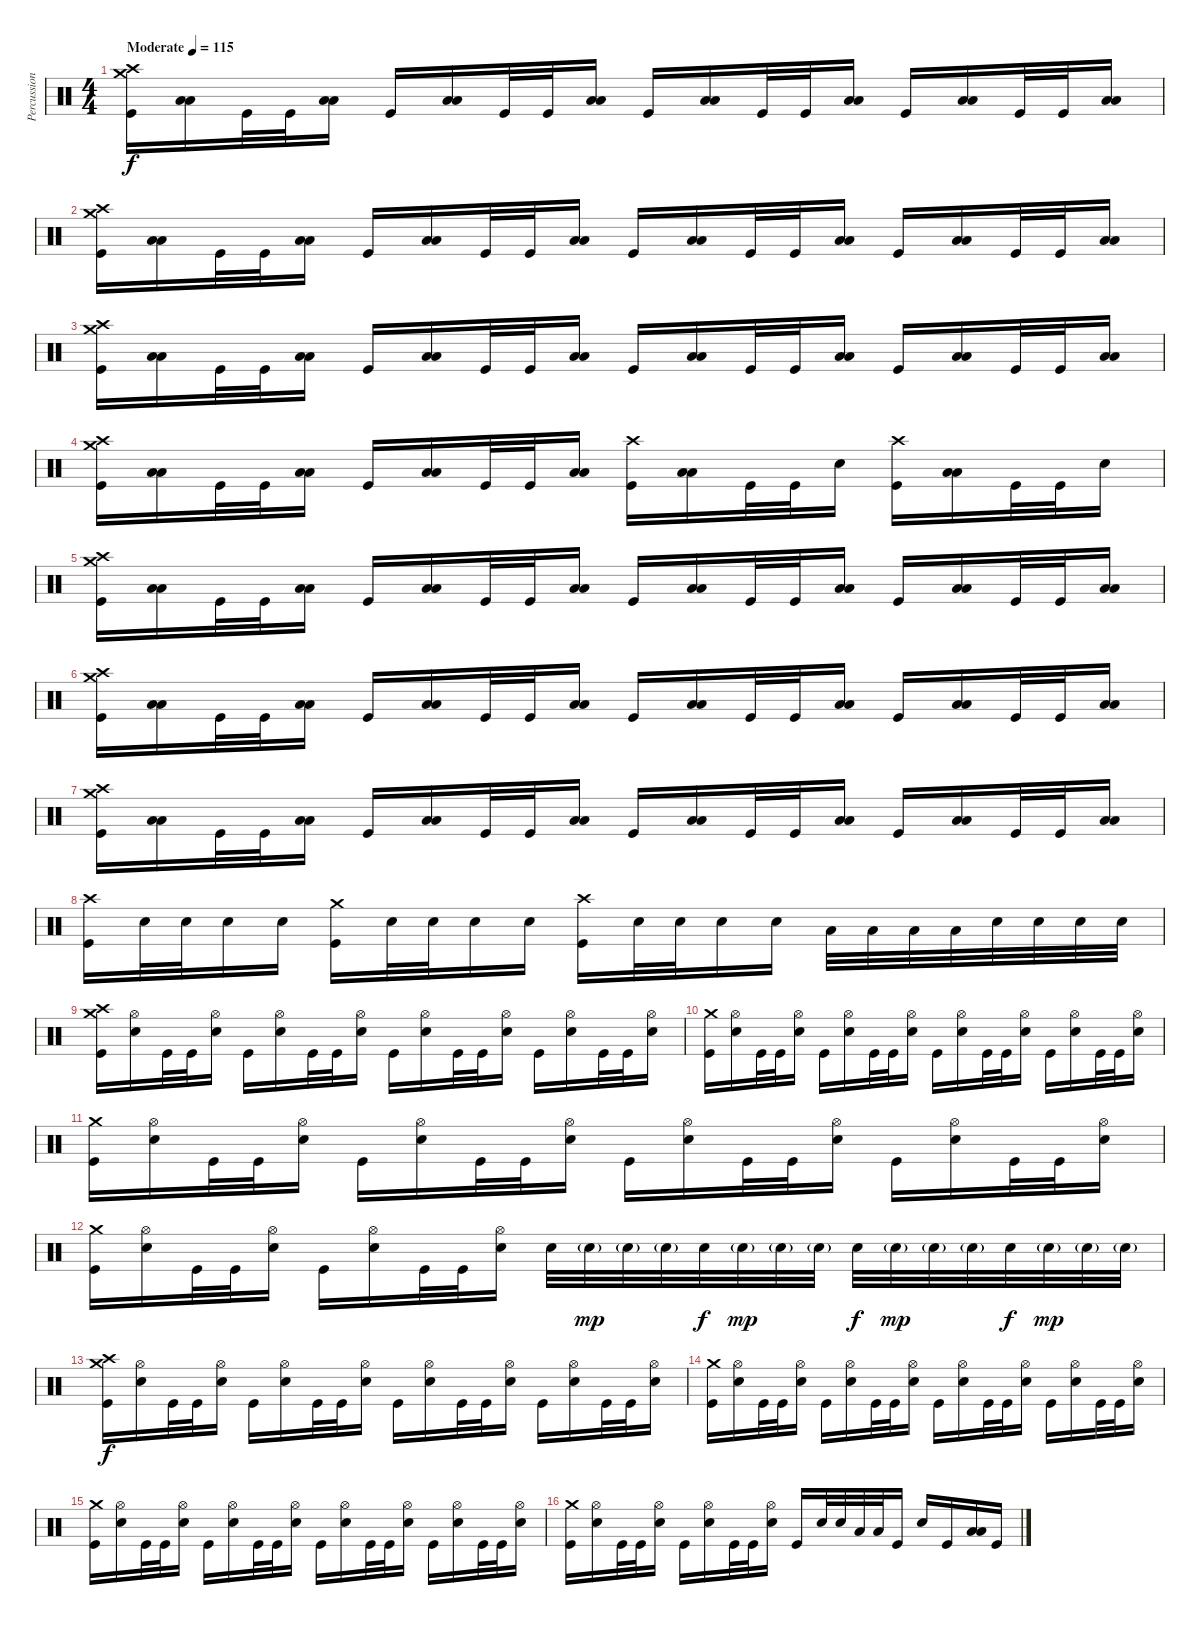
\track ("Percussion" "Percussion") {instrument percussion}
\staff {score}
\articulation defaults
\ts (4 4)
\tempo (115 "Moderate")
\clef neutral
\ks c
("Crash medium (hit)" "Crash high (hit)" "Kick (hit)").16{dy f} ("Low Tom (hit)" "Low Floor Tom (hit)").16 "Kick (hit)".32 "Kick (hit)".32 ("Low Tom (hit)" "Low Floor Tom (hit)").16 "Kick (hit)".16 ("Low Tom (hit)" "Low Floor Tom (hit)").16 "Kick (hit)".32 "Kick (hit)".32 ("Low Tom (hit)" "Low Floor Tom (hit)").16 "Kick (hit)".16 ("Low Tom (hit)" "Low Floor Tom (hit)").16 "Kick (hit)".32 "Kick (hit)".32 ("Low Tom (hit)" "Low Floor Tom (hit)").16 "Kick (hit)".16 ("Low Tom (hit)" "Low Floor Tom (hit)").16 "Kick (hit)".32 "Kick (hit)".32 ("Low Tom (hit)" "Low Floor Tom (hit)").16 |
("Crash medium (hit)" "Crash high (hit)" "Kick (hit)").16 ("Low Tom (hit)" "Low Floor Tom (hit)").16 "Kick (hit)".32 "Kick (hit)".32 ("Low Tom (hit)" "Low Floor Tom (hit)").16 "Kick (hit)".16 ("Low Tom (hit)" "Low Floor Tom (hit)").16 "Kick (hit)".32 "Kick (hit)".32 ("Low Tom (hit)" "Low Floor Tom (hit)").16 "Kick (hit)".16 ("Low Tom (hit)" "Low Floor Tom (hit)").16 "Kick (hit)".32 "Kick (hit)".32 ("Low Tom (hit)" "Low Floor Tom (hit)").16 "Kick (hit)".16 ("Low Tom (hit)" "Low Floor Tom (hit)").16 "Kick (hit)".32 "Kick (hit)".32 ("Low Tom (hit)" "Low Floor Tom (hit)").16 |
("Crash medium (hit)" "Crash high (hit)" "Kick (hit)").16 ("Low Tom (hit)" "Low Floor Tom (hit)").16 "Kick (hit)".32 "Kick (hit)".32 ("Low Tom (hit)" "Low Floor Tom (hit)").16 "Kick (hit)".16 ("Low Tom (hit)" "Low Floor Tom (hit)").16 "Kick (hit)".32 "Kick (hit)".32 ("Low Tom (hit)" "Low Floor Tom (hit)").16 "Kick (hit)".16 ("Low Tom (hit)" "Low Floor Tom (hit)").16 "Kick (hit)".32 "Kick (hit)".32 ("Low Tom (hit)" "Low Floor Tom (hit)").16 "Kick (hit)".16 ("Low Tom (hit)" "Low Floor Tom (hit)").16 "Kick (hit)".32 "Kick (hit)".32 ("Low Tom (hit)" "Low Floor Tom (hit)").16 |
("Crash medium (hit)" "Crash high (hit)" "Kick (hit)").16 ("Low Tom (hit)" "Low Floor Tom (hit)").16 "Kick (hit)".32 "Kick (hit)".32 ("Low Tom (hit)" "Low Floor Tom (hit)").16 "Kick (hit)".16 ("Low Tom (hit)" "Low Floor Tom (hit)").16 "Kick (hit)".32 "Kick (hit)".32 ("Low Tom (hit)" "Low Floor Tom (hit)").16 ("Crash high (hit)" "Kick (hit)").16 ("Low Tom (hit)" "Low Floor Tom (hit)").16 "Kick (hit)".32 "Kick (hit)".32 "Snare (hit) 2".16 ("Crash high (hit)" "Kick (hit)").16 ("Low Tom (hit)" "Low Floor Tom (hit)").16 "Kick (hit)".32 "Kick (hit)".32 "Snare (hit) 2".16 |
("Crash medium (hit)" "Crash high (hit)" "Kick (hit)").16 ("Low Tom (hit)" "Low Floor Tom (hit)").16 "Kick (hit)".32 "Kick (hit)".32 ("Low Tom (hit)" "Low Floor Tom (hit)").16 "Kick (hit)".16 ("Low Tom (hit)" "Low Floor Tom (hit)").16 "Kick (hit)".32 "Kick (hit)".32 ("Low Tom (hit)" "Low Floor Tom (hit)").16 "Kick (hit)".16 ("Low Tom (hit)" "Low Floor Tom (hit)").16 "Kick (hit)".32 "Kick (hit)".32 ("Low Tom (hit)" "Low Floor Tom (hit)").16 "Kick (hit)".16 ("Low Tom (hit)" "Low Floor Tom (hit)").16 "Kick (hit)".32 "Kick (hit)".32 ("Low Tom (hit)" "Low Floor Tom (hit)").16 |
("Crash medium (hit)" "Crash high (hit)" "Kick (hit)").16 ("Low Tom (hit)" "Low Floor Tom (hit)").16 "Kick (hit)".32 "Kick (hit)".32 ("Low Tom (hit)" "Low Floor Tom (hit)").16 "Kick (hit)".16 ("Low Tom (hit)" "Low Floor Tom (hit)").16 "Kick (hit)".32 "Kick (hit)".32 ("Low Tom (hit)" "Low Floor Tom (hit)").16 "Kick (hit)".16 ("Low Tom (hit)" "Low Floor Tom (hit)").16 "Kick (hit)".32 "Kick (hit)".32 ("Low Tom (hit)" "Low Floor Tom (hit)").16 "Kick (hit)".16 ("Low Tom (hit)" "Low Floor Tom (hit)").16 "Kick (hit)".32 "Kick (hit)".32 ("Low Tom (hit)" "Low Floor Tom (hit)").16 |
("Crash medium (hit)" "Crash high (hit)" "Kick (hit)").16 ("Low Tom (hit)" "Low Floor Tom (hit)").16 "Kick (hit)".32 "Kick (hit)".32 ("Low Tom (hit)" "Low Floor Tom (hit)").16 "Kick (hit)".16 ("Low Tom (hit)" "Low Floor Tom (hit)").16 "Kick (hit)".32 "Kick (hit)".32 ("Low Tom (hit)" "Low Floor Tom (hit)").16 "Kick (hit)".16 ("Low Tom (hit)" "Low Floor Tom (hit)").16 "Kick (hit)".32 "Kick (hit)".32 ("Low Tom (hit)" "Low Floor Tom (hit)").16 "Kick (hit)".16 ("Low Tom (hit)" "Low Floor Tom (hit)").16 "Kick (hit)".32 "Kick (hit)".32 ("Low Tom (hit)" "Low Floor Tom (hit)").16 |
("Crash high (hit)" "Kick (hit)").16 "Snare (hit) 2".32 "Snare (hit) 2".32 "Snare (hit) 2".16 "Snare (hit) 2".16 ("Crash medium (hit)" "Kick (hit)").16 "Snare (hit) 2".32 "Snare (hit) 2".32 "Snare (hit) 2".16 "Snare (hit) 2".16 ("Crash high (hit)" "Kick (hit)").16 "Snare (hit) 2".32 "Snare (hit) 2".32 "Snare (hit) 2".16 "Snare (hit) 2".16 "Low Tom (hit)".32 "Low Tom (hit)".32 "Low Tom (hit)".32 "Low Tom (hit)".32 "Snare (hit) 2".32 "Snare (hit) 2".32 "Snare (hit) 2".32 "Snare (hit) 2".32 |
("Crash medium (hit)" "Crash high (hit)" "Kick (hit)").16 ("Hi-Hat (open)" "Snare (hit) 2").16 "Kick (hit)".32 "Kick (hit)".32 ("Hi-Hat (open)" "Snare (hit) 2").16 "Kick (hit)".16 ("Hi-Hat (open)" "Snare (hit) 2").16 "Kick (hit)".32 "Kick (hit)".32 ("Hi-Hat (open)" "Snare (hit) 2").16 "Kick (hit)".16 ("Hi-Hat (open)" "Snare (hit) 2").16 "Kick (hit)".32 "Kick (hit)".32 ("Hi-Hat (open)" "Snare (hit) 2").16 "Kick (hit)".16 ("Hi-Hat (open)" "Snare (hit) 2").16 "Kick (hit)".32 "Kick (hit)".32 ("Hi-Hat (open)" "Snare (hit) 2").16 |
("Crash medium (hit)" "Kick (hit)").16 ("Hi-Hat (open)" "Snare (hit) 2").16 "Kick (hit)".32 "Kick (hit)".32 ("Hi-Hat (open)" "Snare (hit) 2").16 "Kick (hit)".16 ("Hi-Hat (open)" "Snare (hit) 2").16 "Kick (hit)".32 "Kick (hit)".32 ("Hi-Hat (open)" "Snare (hit) 2").16 "Kick (hit)".16 ("Hi-Hat (open)" "Snare (hit) 2").16 "Kick (hit)".32 "Kick (hit)".32 ("Hi-Hat (open)" "Snare (hit) 2").16 "Kick (hit)".16 ("Hi-Hat (open)" "Snare (hit) 2").16 "Kick (hit)".32 "Kick (hit)".32 ("Hi-Hat (open)" "Snare (hit) 2").16 |
("Crash medium (hit)" "Kick (hit)").16 ("Hi-Hat (open)" "Snare (hit) 2").16 "Kick (hit)".32 "Kick (hit)".32 ("Hi-Hat (open)" "Snare (hit) 2").16 "Kick (hit)".16 ("Hi-Hat (open)" "Snare (hit) 2").16 "Kick (hit)".32 "Kick (hit)".32 ("Hi-Hat (open)" "Snare (hit) 2").16 "Kick (hit)".16 ("Hi-Hat (open)" "Snare (hit) 2").16 "Kick (hit)".32 "Kick (hit)".32 ("Hi-Hat (open)" "Snare (hit) 2").16 "Kick (hit)".16 ("Hi-Hat (open)" "Snare (hit) 2").16 "Kick (hit)".32 "Kick (hit)".32 ("Hi-Hat (open)" "Snare (hit) 2").16 |
("Crash medium (hit)" "Kick (hit)").16 ("Hi-Hat (open)" "Snare (hit) 2").16 "Kick (hit)".32 "Kick (hit)".32 ("Hi-Hat (open)" "Snare (hit) 2").16 "Kick (hit)".16 ("Hi-Hat (open)" "Snare (hit) 2").16 "Kick (hit)".32 "Kick (hit)".32 ("Hi-Hat (open)" "Snare (hit) 2").16 "Snare (hit) 2".32 "Snare (hit) 2"{g}.32{dy mp} "Snare (hit) 2"{g}.32 "Snare (hit) 2"{g}.32 "Snare (hit) 2".32{dy f} "Snare (hit) 2"{g}.32{dy mp} "Snare (hit) 2"{g}.32 "Snare (hit) 2"{g}.32 "Snare (hit) 2".32{dy f} "Snare (hit) 2"{g}.32{dy mp} "Snare (hit) 2"{g}.32 "Snare (hit) 2"{g}.32 "Snare (hit) 2".32{dy f} "Snare (hit) 2"{g}.32{dy mp} "Snare (hit) 2"{g}.32 "Snare (hit) 2"{g}.32 |
("Crash medium (hit)" "Crash high (hit)" "Kick (hit)").16{dy f} ("Hi-Hat (open)" "Snare (hit) 2").16 "Kick (hit)".32 "Kick (hit)".32 ("Hi-Hat (open)" "Snare (hit) 2").16 "Kick (hit)".16 ("Hi-Hat (open)" "Snare (hit) 2").16 "Kick (hit)".32 "Kick (hit)".32 ("Hi-Hat (open)" "Snare (hit) 2").16 "Kick (hit)".16 ("Hi-Hat (open)" "Snare (hit) 2").16 "Kick (hit)".32 "Kick (hit)".32 ("Hi-Hat (open)" "Snare (hit) 2").16 "Kick (hit)".16 ("Hi-Hat (open)" "Snare (hit) 2").16 "Kick (hit)".32 "Kick (hit)".32 ("Hi-Hat (open)" "Snare (hit) 2").16 |
("Crash medium (hit)" "Kick (hit)").16 ("Hi-Hat (open)" "Snare (hit) 2").16 "Kick (hit)".32 "Kick (hit)".32 ("Hi-Hat (open)" "Snare (hit) 2").16 "Kick (hit)".16 ("Hi-Hat (open)" "Snare (hit) 2").16 "Kick (hit)".32 "Kick (hit)".32 ("Hi-Hat (open)" "Snare (hit) 2").16 "Kick (hit)".16 ("Hi-Hat (open)" "Snare (hit) 2").16 "Kick (hit)".32 "Kick (hit)".32 ("Hi-Hat (open)" "Snare (hit) 2").16 "Kick (hit)".16 ("Hi-Hat (open)" "Snare (hit) 2").16 "Kick (hit)".32 "Kick (hit)".32 ("Hi-Hat (open)" "Snare (hit) 2").16 |
("Crash medium (hit)" "Kick (hit)").16 ("Hi-Hat (open)" "Snare (hit) 2").16 "Kick (hit)".32 "Kick (hit)".32 ("Hi-Hat (open)" "Snare (hit) 2").16 "Kick (hit)".16 ("Hi-Hat (open)" "Snare (hit) 2").16 "Kick (hit)".32 "Kick (hit)".32 ("Hi-Hat (open)" "Snare (hit) 2").16 "Kick (hit)".16 ("Hi-Hat (open)" "Snare (hit) 2").16 "Kick (hit)".32 "Kick (hit)".32 ("Hi-Hat (open)" "Snare (hit) 2").16 "Kick (hit)".16 ("Hi-Hat (open)" "Snare (hit) 2").16 "Kick (hit)".32 "Kick (hit)".32 ("Hi-Hat (open)" "Snare (hit) 2").16 |
("Crash medium (hit)" "Kick (hit)").16 ("Hi-Hat (open)" "Snare (hit) 2").16 "Kick (hit)".32 "Kick (hit)".32 ("Hi-Hat (open)" "Snare (hit) 2").16 "Kick (hit)".16 ("Hi-Hat (open)" "Snare (hit) 2").16 "Kick (hit)".32 "Kick (hit)".32 ("Hi-Hat (open)" "Snare (hit) 2").16 "Kick (hit)".16 "Snare (hit) 2".32 "Snare (hit) 2".32 "Low Tom (hit)".32 "Low Tom (hit)".32 "Kick (hit)".16 "Snare (hit) 2".16 "Kick (hit)".16 ("Low Tom (hit)" "Low Floor Tom (hit)").16 "Kick (hit)".16
